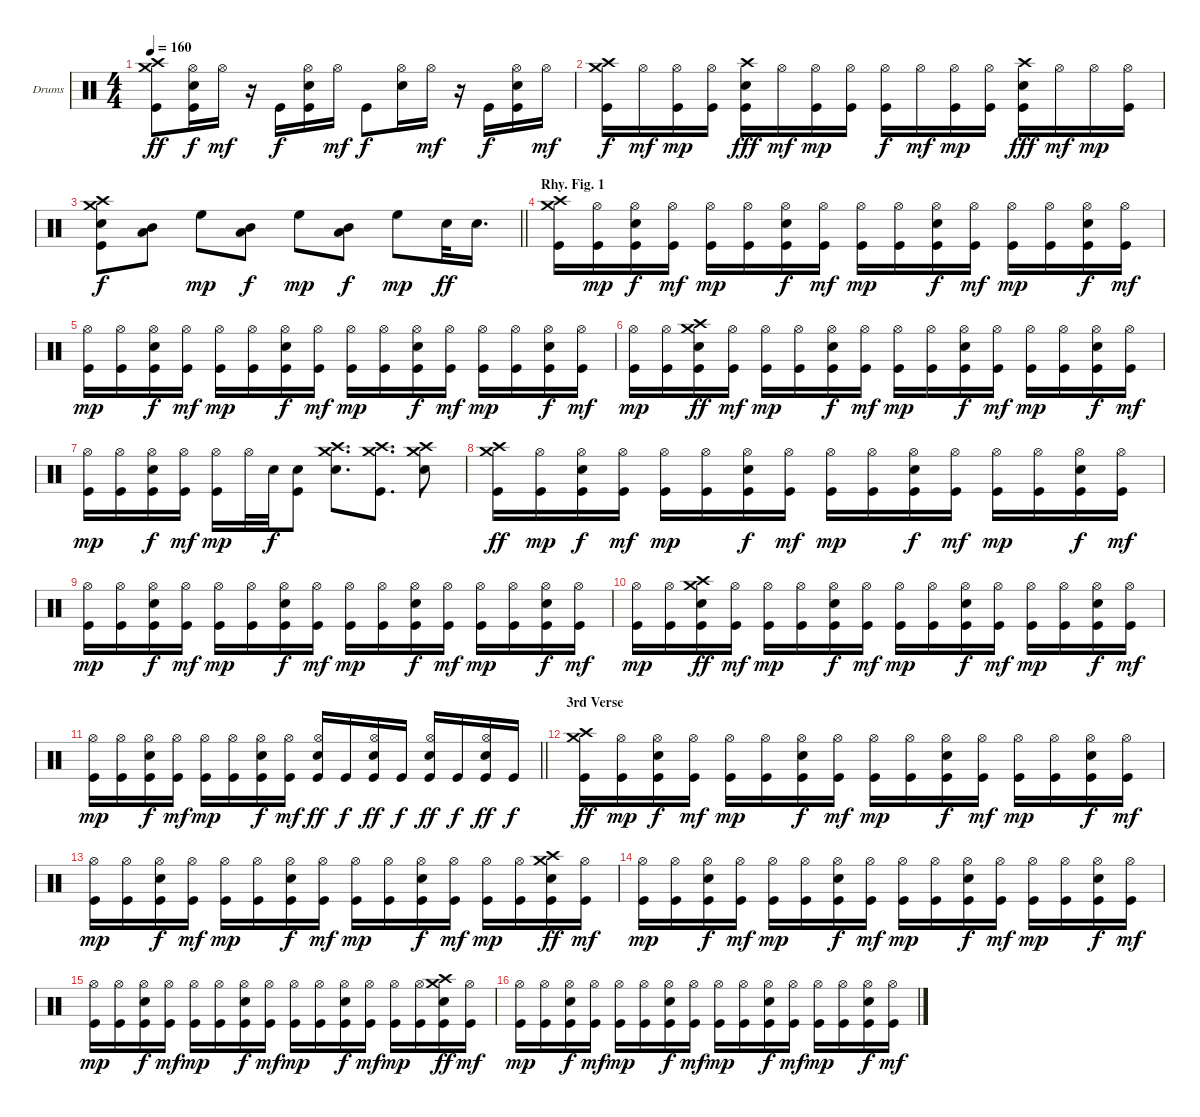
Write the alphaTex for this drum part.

\bracketExtendMode groupsimilarinstruments
\firstSystemTrackNameOrientation horizontal
\otherSystemsTrackNameOrientation horizontal
\track ("Drumkit" "Drums") {instrument percussion}
\staff {score}
\articulation defaults
\ts (4 4)
\tempo 160
\clef neutral
\ks c
("Crash medium (hit)" "Crash high (hit)" "Kick (hit)").8{dy ff} ("Hi-Hat (open)" "Snare (hit) 2" "Kick (hit)").16{dy f} "Hi-Hat (open)".16{dy mf} r.16 "Kick (hit)".16{dy f} ("Hi-Hat (open)" "Snare (hit) 2" "Kick (hit)").16 "Hi-Hat (open)".16{dy mf} "Kick (hit)".8{dy f} ("Hi-Hat (open)" "Snare (hit) 2").16 "Hi-Hat (open)".16{dy mf} r.16 "Kick (hit)".16{dy f} ("Hi-Hat (open)" "Snare (hit) 2" "Kick (hit)").16 "Hi-Hat (open)".16{dy mf} |
("Crash medium (hit)" "Crash high (hit)" "Kick (hit)").16{dy f} "Hi-Hat (open)".16{dy mf} ("Hi-Hat (open)" "Kick (hit)").16{dy mp} ("Hi-Hat (open)" "Kick (hit)").16 ("Crash high (hit)" "Snare (hit) 2" "Kick (hit)").16{dy fff} "Hi-Hat (open)".16{dy mf} ("Hi-Hat (open)" "Kick (hit)").16{dy mp} ("Hi-Hat (open)" "Kick (hit)").16 ("Hi-Hat (open)" "Kick (hit)").16{dy f} "Hi-Hat (open)".16{dy mf} ("Hi-Hat (open)" "Kick (hit)").16{dy mp} ("Hi-Hat (open)" "Kick (hit)").16 ("Crash high (hit)" "Snare (hit) 2" "Kick (hit)").16{dy fff} "Hi-Hat (open)".16{dy mf} "Hi-Hat (open)".16{dy mp} ("Hi-Hat (open)" "Kick (hit)").16 |
\barLineRight lightlight
("Crash medium (hit)" "Crash high (hit)" "Snare (hit) 2" "Kick (hit)").8{dy f} ("Mid Tom (hit)" "Low Tom (hit)").8 "High Floor Tom (hit)".8{dy mp} ("Mid Tom (hit)" "Low Tom (hit)").8{dy f} "High Floor Tom (hit)".8{dy mp} ("Mid Tom (hit)" "Low Tom (hit)").8{dy f} "High Floor Tom (hit)".8{dy mp} "Snare (hit) 2".32{dy ff} "Snare (hit) 2".16{d} |
\section ("" "Rhy. Fig. 1")
("Crash medium (hit)" "Crash high (hit)" "Kick (hit)").16 ("Hi-Hat (open)" "Kick (hit)").16{dy mp} ("Hi-Hat (open)" "Snare (hit) 2" "Kick (hit)").16{dy f} ("Hi-Hat (open)" "Kick (hit)").16{dy mf} ("Hi-Hat (open)" "Kick (hit)").16{dy mp} ("Hi-Hat (open)" "Kick (hit)").16 ("Hi-Hat (open)" "Snare (hit) 2" "Kick (hit)").16{dy f} ("Hi-Hat (open)" "Kick (hit)").16{dy mf} ("Hi-Hat (open)" "Kick (hit)").16{dy mp} ("Hi-Hat (open)" "Kick (hit)").16 ("Hi-Hat (open)" "Snare (hit) 2" "Kick (hit)").16{dy f} ("Hi-Hat (open)" "Kick (hit)").16{dy mf} ("Hi-Hat (open)" "Kick (hit)").16{dy mp} ("Hi-Hat (open)" "Kick (hit)").16 ("Hi-Hat (open)" "Snare (hit) 2" "Kick (hit)").16{dy f} ("Hi-Hat (open)" "Kick (hit)").16{dy mf} |
("Hi-Hat (open)" "Kick (hit)").16{dy mp} ("Hi-Hat (open)" "Kick (hit)").16 ("Hi-Hat (open)" "Snare (hit) 2" "Kick (hit)").16{dy f} ("Hi-Hat (open)" "Kick (hit)").16{dy mf} ("Hi-Hat (open)" "Kick (hit)").16{dy mp} ("Hi-Hat (open)" "Kick (hit)").16 ("Hi-Hat (open)" "Snare (hit) 2" "Kick (hit)").16{dy f} ("Hi-Hat (open)" "Kick (hit)").16{dy mf} ("Hi-Hat (open)" "Kick (hit)").16{dy mp} ("Hi-Hat (open)" "Kick (hit)").16 ("Hi-Hat (open)" "Snare (hit) 2" "Kick (hit)").16{dy f} ("Hi-Hat (open)" "Kick (hit)").16{dy mf} ("Hi-Hat (open)" "Kick (hit)").16{dy mp} ("Hi-Hat (open)" "Kick (hit)").16 ("Hi-Hat (open)" "Snare (hit) 2" "Kick (hit)").16{dy f} ("Hi-Hat (open)" "Kick (hit)").16{dy mf} |
("Hi-Hat (open)" "Kick (hit)").16{dy mp} ("Hi-Hat (open)" "Kick (hit)").16 ("Crash medium (hit)" "Crash high (hit)" "Snare (hit) 2" "Kick (hit)").16{dy ff} ("Hi-Hat (open)" "Kick (hit)").16{dy mf} ("Hi-Hat (open)" "Kick (hit)").16{dy mp} ("Hi-Hat (open)" "Kick (hit)").16 ("Hi-Hat (open)" "Snare (hit) 2" "Kick (hit)").16{dy f} ("Hi-Hat (open)" "Kick (hit)").16{dy mf} ("Hi-Hat (open)" "Kick (hit)").16{dy mp} ("Hi-Hat (open)" "Kick (hit)").16 ("Hi-Hat (open)" "Snare (hit) 2" "Kick (hit)").16{dy f} ("Hi-Hat (open)" "Kick (hit)").16{dy mf} ("Hi-Hat (open)" "Kick (hit)").16{dy mp} ("Hi-Hat (open)" "Kick (hit)").16 ("Hi-Hat (open)" "Snare (hit) 2" "Kick (hit)").16{dy f} ("Hi-Hat (open)" "Kick (hit)").16{dy mf} |
("Hi-Hat (open)" "Kick (hit)").16{dy mp} ("Hi-Hat (open)" "Kick (hit)").16 ("Hi-Hat (open)" "Snare (hit) 2" "Kick (hit)").16{dy f} ("Hi-Hat (open)" "Kick (hit)").16{dy mf} ("Hi-Hat (open)" "Kick (hit)").16{dy mp} "Hi-Hat (open)".32 "Snare (hit) 2".32{dy f} ("Snare (hit) 2" "Kick (hit)").8 ("Crash medium (hit)" "Crash high (hit)" "Snare (hit) 2").8{d} ("Crash medium (hit)" "Crash high (hit)" "Kick (hit)").8{d} ("Crash medium (hit)" "Crash high (hit)" "Snare (hit) 2").8 |
("Crash medium (hit)" "Crash high (hit)" "Kick (hit)").16{dy ff} ("Hi-Hat (open)" "Kick (hit)").16{dy mp} ("Hi-Hat (open)" "Snare (hit) 2" "Kick (hit)").16{dy f} ("Hi-Hat (open)" "Kick (hit)").16{dy mf} ("Hi-Hat (open)" "Kick (hit)").16{dy mp} ("Hi-Hat (open)" "Kick (hit)").16 ("Hi-Hat (open)" "Snare (hit) 2" "Kick (hit)").16{dy f} ("Hi-Hat (open)" "Kick (hit)").16{dy mf} ("Hi-Hat (open)" "Kick (hit)").16{dy mp} ("Hi-Hat (open)" "Kick (hit)").16 ("Hi-Hat (open)" "Snare (hit) 2" "Kick (hit)").16{dy f} ("Hi-Hat (open)" "Kick (hit)").16{dy mf} ("Hi-Hat (open)" "Kick (hit)").16{dy mp} ("Hi-Hat (open)" "Kick (hit)").16 ("Hi-Hat (open)" "Snare (hit) 2" "Kick (hit)").16{dy f} ("Hi-Hat (open)" "Kick (hit)").16{dy mf} |
("Hi-Hat (open)" "Kick (hit)").16{dy mp} ("Hi-Hat (open)" "Kick (hit)").16 ("Hi-Hat (open)" "Snare (hit) 2" "Kick (hit)").16{dy f} ("Hi-Hat (open)" "Kick (hit)").16{dy mf} ("Hi-Hat (open)" "Kick (hit)").16{dy mp} ("Hi-Hat (open)" "Kick (hit)").16 ("Hi-Hat (open)" "Snare (hit) 2" "Kick (hit)").16{dy f} ("Hi-Hat (open)" "Kick (hit)").16{dy mf} ("Hi-Hat (open)" "Kick (hit)").16{dy mp} ("Hi-Hat (open)" "Kick (hit)").16 ("Hi-Hat (open)" "Snare (hit) 2" "Kick (hit)").16{dy f} ("Hi-Hat (open)" "Kick (hit)").16{dy mf} ("Hi-Hat (open)" "Kick (hit)").16{dy mp} ("Hi-Hat (open)" "Kick (hit)").16 ("Hi-Hat (open)" "Snare (hit) 2" "Kick (hit)").16{dy f} ("Hi-Hat (open)" "Kick (hit)").16{dy mf} |
("Hi-Hat (open)" "Kick (hit)").16{dy mp} ("Hi-Hat (open)" "Kick (hit)").16 ("Crash medium (hit)" "Crash high (hit)" "Snare (hit) 2" "Kick (hit)").16{dy ff} ("Hi-Hat (open)" "Kick (hit)").16{dy mf} ("Hi-Hat (open)" "Kick (hit)").16{dy mp} ("Hi-Hat (open)" "Kick (hit)").16 ("Hi-Hat (open)" "Snare (hit) 2" "Kick (hit)").16{dy f} ("Hi-Hat (open)" "Kick (hit)").16{dy mf} ("Hi-Hat (open)" "Kick (hit)").16{dy mp} ("Hi-Hat (open)" "Kick (hit)").16 ("Hi-Hat (open)" "Snare (hit) 2" "Kick (hit)").16{dy f} ("Hi-Hat (open)" "Kick (hit)").16{dy mf} ("Hi-Hat (open)" "Kick (hit)").16{dy mp} ("Hi-Hat (open)" "Kick (hit)").16 ("Hi-Hat (open)" "Snare (hit) 2" "Kick (hit)").16{dy f} ("Hi-Hat (open)" "Kick (hit)").16{dy mf} |
\barLineRight lightlight
("Hi-Hat (open)" "Kick (hit)").16{dy mp} ("Hi-Hat (open)" "Kick (hit)").16 ("Hi-Hat (open)" "Snare (hit) 2" "Kick (hit)").16{dy f} ("Hi-Hat (open)" "Kick (hit)").16{dy mf} ("Hi-Hat (open)" "Kick (hit)").16{dy mp} ("Hi-Hat (open)" "Kick (hit)").16 ("Hi-Hat (open)" "Snare (hit) 2" "Kick (hit)").16{dy f} ("Hi-Hat (open)" "Kick (hit)").16{dy mf} ("Hi-Hat (open)" "Snare (hit) 2" "Kick (hit)").16{dy ff} "Kick (hit)".16{dy f} ("Hi-Hat (open)" "Snare (hit) 2" "Kick (hit)").16{dy ff} "Kick (hit)".16{dy f} ("Hi-Hat (open)" "Snare (hit) 2" "Kick (hit)").16{dy ff} "Kick (hit)".16{dy f} ("Hi-Hat (open)" "Snare (hit) 2" "Kick (hit)").16{dy ff} "Kick (hit)".16{dy f} |
\section ("" "3rd Verse")
("Crash medium (hit)" "Crash high (hit)" "Kick (hit)").16{dy ff} ("Hi-Hat (open)" "Kick (hit)").16{dy mp} ("Hi-Hat (open)" "Snare (hit) 2" "Kick (hit)").16{dy f} ("Hi-Hat (open)" "Kick (hit)").16{dy mf} ("Hi-Hat (open)" "Kick (hit)").16{dy mp} ("Hi-Hat (open)" "Kick (hit)").16 ("Hi-Hat (open)" "Snare (hit) 2" "Kick (hit)").16{dy f} ("Hi-Hat (open)" "Kick (hit)").16{dy mf} ("Hi-Hat (open)" "Kick (hit)").16{dy mp} ("Hi-Hat (open)" "Kick (hit)").16 ("Hi-Hat (open)" "Snare (hit) 2" "Kick (hit)").16{dy f} ("Hi-Hat (open)" "Kick (hit)").16{dy mf} ("Hi-Hat (open)" "Kick (hit)").16{dy mp} ("Hi-Hat (open)" "Kick (hit)").16 ("Hi-Hat (open)" "Snare (hit) 2" "Kick (hit)").16{dy f} ("Hi-Hat (open)" "Kick (hit)").16{dy mf} |
("Hi-Hat (open)" "Kick (hit)").16{dy mp} ("Hi-Hat (open)" "Kick (hit)").16 ("Hi-Hat (open)" "Snare (hit) 2" "Kick (hit)").16{dy f} ("Hi-Hat (open)" "Kick (hit)").16{dy mf} ("Hi-Hat (open)" "Kick (hit)").16{dy mp} ("Hi-Hat (open)" "Kick (hit)").16 ("Hi-Hat (open)" "Snare (hit) 2" "Kick (hit)").16{dy f} ("Hi-Hat (open)" "Kick (hit)").16{dy mf} ("Hi-Hat (open)" "Kick (hit)").16{dy mp} ("Hi-Hat (open)" "Kick (hit)").16 ("Hi-Hat (open)" "Snare (hit) 2" "Kick (hit)").16{dy f} ("Hi-Hat (open)" "Kick (hit)").16{dy mf} ("Hi-Hat (open)" "Kick (hit)").16{dy mp} ("Hi-Hat (open)" "Kick (hit)").16 ("Crash medium (hit)" "Crash high (hit)" "Snare (hit) 2" "Kick (hit)").16{dy ff} ("Hi-Hat (open)" "Kick (hit)").16{dy mf} |
("Hi-Hat (open)" "Kick (hit)").16{dy mp} ("Hi-Hat (open)" "Kick (hit)").16 ("Hi-Hat (open)" "Snare (hit) 2" "Kick (hit)").16{dy f} ("Hi-Hat (open)" "Kick (hit)").16{dy mf} ("Hi-Hat (open)" "Kick (hit)").16{dy mp} ("Hi-Hat (open)" "Kick (hit)").16 ("Hi-Hat (open)" "Snare (hit) 2" "Kick (hit)").16{dy f} ("Hi-Hat (open)" "Kick (hit)").16{dy mf} ("Hi-Hat (open)" "Kick (hit)").16{dy mp} ("Hi-Hat (open)" "Kick (hit)").16 ("Hi-Hat (open)" "Snare (hit) 2" "Kick (hit)").16{dy f} ("Hi-Hat (open)" "Kick (hit)").16{dy mf} ("Hi-Hat (open)" "Kick (hit)").16{dy mp} ("Hi-Hat (open)" "Kick (hit)").16 ("Hi-Hat (open)" "Snare (hit) 2" "Kick (hit)").16{dy f} ("Hi-Hat (open)" "Kick (hit)").16{dy mf} |
("Hi-Hat (open)" "Kick (hit)").16{dy mp} ("Hi-Hat (open)" "Kick (hit)").16 ("Hi-Hat (open)" "Snare (hit) 2" "Kick (hit)").16{dy f} ("Hi-Hat (open)" "Kick (hit)").16{dy mf} ("Hi-Hat (open)" "Kick (hit)").16{dy mp} ("Hi-Hat (open)" "Kick (hit)").16 ("Hi-Hat (open)" "Snare (hit) 2" "Kick (hit)").16{dy f} ("Hi-Hat (open)" "Kick (hit)").16{dy mf} ("Hi-Hat (open)" "Kick (hit)").16{dy mp} ("Hi-Hat (open)" "Kick (hit)").16 ("Hi-Hat (open)" "Snare (hit) 2" "Kick (hit)").16{dy f} ("Hi-Hat (open)" "Kick (hit)").16{dy mf} ("Hi-Hat (open)" "Kick (hit)").16{dy mp} ("Hi-Hat (open)" "Kick (hit)").16 ("Crash medium (hit)" "Crash high (hit)" "Snare (hit) 2" "Kick (hit)").16{dy ff} ("Hi-Hat (open)" "Kick (hit)").16{dy mf} |
("Hi-Hat (open)" "Kick (hit)").16{dy mp} ("Hi-Hat (open)" "Kick (hit)").16 ("Hi-Hat (open)" "Snare (hit) 2" "Kick (hit)").16{dy f} ("Hi-Hat (open)" "Kick (hit)").16{dy mf} ("Hi-Hat (open)" "Kick (hit)").16{dy mp} ("Hi-Hat (open)" "Kick (hit)").16 ("Hi-Hat (open)" "Snare (hit) 2" "Kick (hit)").16{dy f} ("Hi-Hat (open)" "Kick (hit)").16{dy mf} ("Hi-Hat (open)" "Kick (hit)").16{dy mp} ("Hi-Hat (open)" "Kick (hit)").16 ("Hi-Hat (open)" "Snare (hit) 2" "Kick (hit)").16{dy f} ("Hi-Hat (open)" "Kick (hit)").16{dy mf} ("Hi-Hat (open)" "Kick (hit)").16{dy mp} ("Hi-Hat (open)" "Kick (hit)").16 ("Hi-Hat (open)" "Snare (hit) 2" "Kick (hit)").16{dy f} ("Hi-Hat (open)" "Kick (hit)").16{dy mf}
